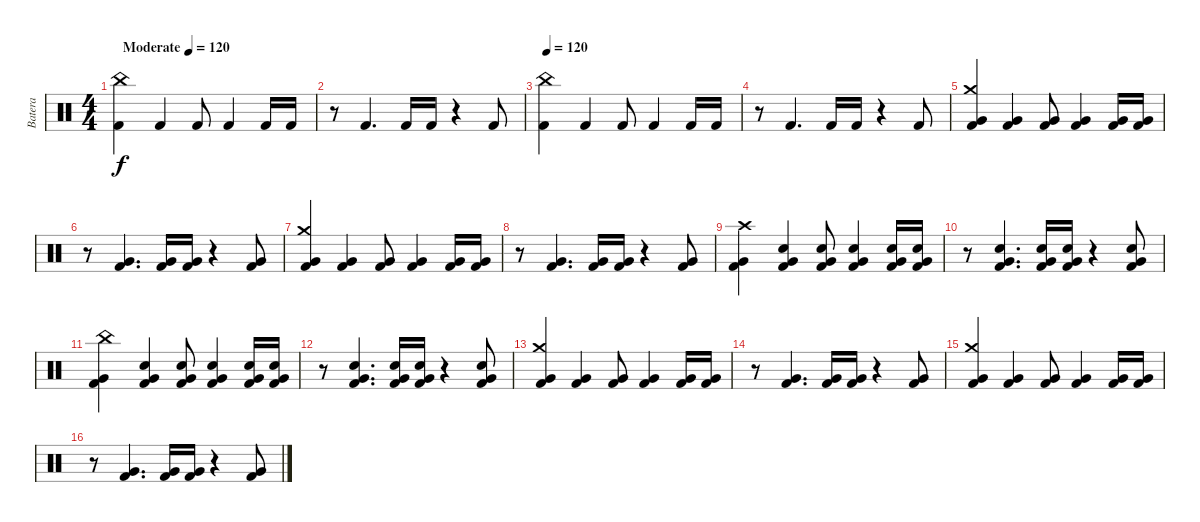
\track ("Batera" "Batera") {instrument percussion}
\staff {score}
\articulation defaults
\ts (4 4)
\tempo (120 "Moderate")
\clef neutral
\ks c
("China (hit)" "Kick (hit) 2").4{dy f} "Kick (hit) 2".4 "Kick (hit) 2".8 "Kick (hit) 2".4 "Kick (hit) 2".16 "Kick (hit) 2".16 |
r.8 "Kick (hit) 2".4{d} "Kick (hit) 2".16 "Kick (hit) 2".16 r.4 "Kick (hit) 2".8 |
\tempo 120
("China (hit)" "Kick (hit) 2").4 "Kick (hit) 2".4 "Kick (hit) 2".8 "Kick (hit) 2".4 "Kick (hit) 2".16 "Kick (hit) 2".16 |
r.8 "Kick (hit) 2".4{d} "Kick (hit) 2".16 "Kick (hit) 2".16 r.4 "Kick (hit) 2".8 |
("Crash medium (hit)" "Very Low Tom (hit)" "Kick (hit) 2").4 ("Very Low Tom (hit)" "Kick (hit) 2").4 ("Very Low Tom (hit)" "Kick (hit) 2").8 ("Very Low Tom (hit)" "Kick (hit) 2").4 ("Very Low Tom (hit)" "Kick (hit) 2").16 ("Very Low Tom (hit)" "Kick (hit) 2").16 |
r.8 ("Very Low Tom (hit)" "Kick (hit) 2").4{d} ("Very Low Tom (hit)" "Kick (hit) 2").16 ("Very Low Tom (hit)" "Kick (hit) 2").16 r.4 ("Very Low Tom (hit)" "Kick (hit) 2").8 |
("Crash medium (hit)" "Very Low Tom (hit)" "Kick (hit) 2").4 ("Very Low Tom (hit)" "Kick (hit) 2").4 ("Very Low Tom (hit)" "Kick (hit) 2").8 ("Very Low Tom (hit)" "Kick (hit) 2").4 ("Very Low Tom (hit)" "Kick (hit) 2").16 ("Very Low Tom (hit)" "Kick (hit) 2").16 |
r.8 ("Very Low Tom (hit)" "Kick (hit) 2").4{d} ("Very Low Tom (hit)" "Kick (hit) 2").16 ("Very Low Tom (hit)" "Kick (hit) 2").16 r.4 ("Very Low Tom (hit)" "Kick (hit) 2").8 |
("Crash high (hit)" "Very Low Tom (hit)" "Kick (hit) 2").4 ("Snare (hit) 2" "Very Low Tom (hit)" "Kick (hit) 2").4 ("Snare (hit) 2" "Very Low Tom (hit)" "Kick (hit) 2").8 ("Snare (hit) 2" "Very Low Tom (hit)" "Kick (hit) 2").4 ("Snare (hit) 2" "Very Low Tom (hit)" "Kick (hit) 2").16 ("Snare (hit) 2" "Very Low Tom (hit)" "Kick (hit) 2").16 |
r.8 ("Snare (hit) 2" "Very Low Tom (hit)" "Kick (hit) 2").4{d} ("Snare (hit) 2" "Very Low Tom (hit)" "Kick (hit) 2").16 ("Snare (hit) 2" "Very Low Tom (hit)" "Kick (hit) 2").16 r.4 ("Snare (hit) 2" "Very Low Tom (hit)" "Kick (hit) 2").8 |
("China (hit)" "Very Low Tom (hit)" "Kick (hit) 2").4 ("Snare (hit) 2" "Very Low Tom (hit)" "Kick (hit) 2").4 ("Snare (hit) 2" "Very Low Tom (hit)" "Kick (hit) 2").8 ("Snare (hit) 2" "Very Low Tom (hit)" "Kick (hit) 2").4 ("Snare (hit) 2" "Very Low Tom (hit)" "Kick (hit) 2").16 ("Snare (hit) 2" "Very Low Tom (hit)" "Kick (hit) 2").16 |
r.8 ("Snare (hit) 2" "Very Low Tom (hit)" "Kick (hit) 2").4{d} ("Snare (hit) 2" "Very Low Tom (hit)" "Kick (hit) 2").16 ("Snare (hit) 2" "Very Low Tom (hit)" "Kick (hit) 2").16 r.4 ("Snare (hit) 2" "Very Low Tom (hit)" "Kick (hit) 2").8 |
("Crash medium (hit)" "Very Low Tom (hit)" "Kick (hit) 2").4 ("Very Low Tom (hit)" "Kick (hit) 2").4 ("Very Low Tom (hit)" "Kick (hit) 2").8 ("Very Low Tom (hit)" "Kick (hit) 2").4 ("Very Low Tom (hit)" "Kick (hit) 2").16 ("Very Low Tom (hit)" "Kick (hit) 2").16 |
r.8 ("Very Low Tom (hit)" "Kick (hit) 2").4{d} ("Very Low Tom (hit)" "Kick (hit) 2").16 ("Very Low Tom (hit)" "Kick (hit) 2").16 r.4 ("Very Low Tom (hit)" "Kick (hit) 2").8 |
("Crash medium (hit)" "Very Low Tom (hit)" "Kick (hit) 2").4 ("Very Low Tom (hit)" "Kick (hit) 2").4 ("Very Low Tom (hit)" "Kick (hit) 2").8 ("Very Low Tom (hit)" "Kick (hit) 2").4 ("Very Low Tom (hit)" "Kick (hit) 2").16 ("Very Low Tom (hit)" "Kick (hit) 2").16 |
r.8 ("Very Low Tom (hit)" "Kick (hit) 2").4{d} ("Very Low Tom (hit)" "Kick (hit) 2").16 ("Very Low Tom (hit)" "Kick (hit) 2").16 r.4 ("Very Low Tom (hit)" "Kick (hit) 2").8
